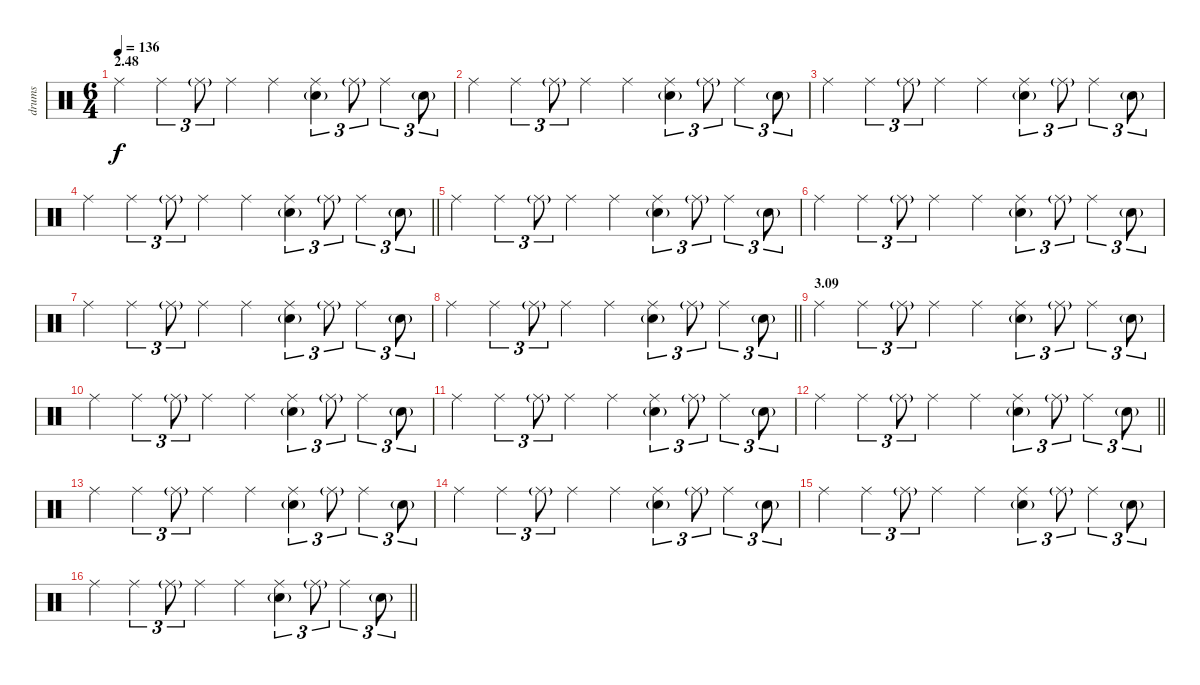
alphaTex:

\track ("drums" "drums") {instrument percussion}
\staff {score}
\articulation defaults
\ts (6 4)
\section ("" "2.48")
\tempo 136
\clef neutral
\ks c "Ride (middle)".4{dy f} "Ride (middle)".4{tu (3 2)} "Ride (middle)"{g}.8{tu (3 2)} "Ride (middle)".4 "Ride (middle)".4
("Ride (middle)" "Electric Snare (hit)"{g}).4{tu (3 2)} "Ride (middle)"{g}.8{tu (3 2)} "Ride (middle)".4{tu (3 2)} "Electric Snare (hit)"{g}.8{tu (3 2)} |
"Ride (middle)".4 "Ride (middle)".4{tu (3 2)} "Ride (middle)"{g}.8{tu (3 2)} "Ride (middle)".4 "Ride (middle)".4 ("Ride (middle)" "Electric Snare (hit)"{g}).4{tu (3 2)} "Ride (middle)"{g}.8{tu (3 2)} "Ride (middle)".4{tu (3 2)} "Electric Snare (hit)"{g}.8{tu (3 2)} |
"Ride (middle)".4 "Ride (middle)".4{tu (3 2)} "Ride (middle)"{g}.8{tu (3 2)} "Ride (middle)".4 "Ride (middle)".4 ("Ride (middle)" "Electric Snare (hit)"{g}).4{tu (3 2)} "Ride (middle)"{g}.8{tu (3 2)} "Ride (middle)".4{tu (3 2)} "Electric Snare (hit)"{g}.8{tu (3 2)} |
\barLineRight lightlight "Ride (middle)".4 "Ride (middle)".4{tu (3 2)} "Ride (middle)"{g}.8{tu (3 2)} "Ride (middle)".4 "Ride (middle)".4
("Ride (middle)" "Electric Snare (hit)"{g}).4{tu (3 2)} "Ride (middle)"{g}.8{tu (3 2)} "Ride (middle)".4{tu (3 2)} "Electric Snare (hit)"{g}.8{tu (3 2)} |
"Ride (middle)".4 "Ride (middle)".4{tu (3 2)} "Ride (middle)"{g}.8{tu (3 2)} "Ride (middle)".4 "Ride (middle)".4 ("Ride (middle)" "Electric Snare (hit)"{g}).4{tu (3 2)} "Ride (middle)"{g}.8{tu (3 2)} "Ride (middle)".4{tu (3 2)} "Electric Snare (hit)"{g}.8{tu (3 2)} |
"Ride (middle)".4 "Ride (middle)".4{tu (3 2)} "Ride (middle)"{g}.8{tu (3 2)} "Ride (middle)".4 "Ride (middle)".4 ("Ride (middle)" "Electric Snare (hit)"{g}).4{tu (3 2)} "Ride (middle)"{g}.8{tu (3 2)} "Ride (middle)".4{tu (3 2)} "Electric Snare (hit)"{g}.8{tu (3 2)} |
"Ride (middle)".4 "Ride (middle)".4{tu (3 2)} "Ride (middle)"{g}.8{tu (3 2)} "Ride (middle)".4 "Ride (middle)".4 ("Ride (middle)" "Electric Snare (hit)"{g}).4{tu (3 2)} "Ride (middle)"{g}.8{tu (3 2)} "Ride (middle)".4{tu (3 2)} "Electric Snare (hit)"{g}.8{tu (3 2)} |
\barLineRight lightlight "Ride (middle)".4 "Ride (middle)".4{tu (3 2)} "Ride (middle)"{g}.8{tu (3 2)} "Ride (middle)".4 "Ride (middle)".4
("Ride (middle)" "Electric Snare (hit)"{g}).4{tu (3 2)} "Ride (middle)"{g}.8{tu (3 2)} "Ride (middle)".4{tu (3 2)} "Electric Snare (hit)"{g}.8{tu (3 2)} |
\section ("" "3.09")
"Ride (middle)".4 "Ride (middle)".4{tu (3 2)} "Ride (middle)"{g}.8{tu (3 2)} "Ride (middle)".4 "Ride (middle)".4 ("Ride (middle)" "Electric Snare (hit)"{g}).4{tu (3 2)} "Ride (middle)"{g}.8{tu (3 2)} "Ride (middle)".4{tu (3 2)} "Electric Snare (hit)"{g}.8{tu (3 2)} |
"Ride (middle)".4 "Ride (middle)".4{tu (3 2)} "Ride (middle)"{g}.8{tu (3 2)} "Ride (middle)".4 "Ride (middle)".4 ("Ride (middle)" "Electric Snare (hit)"{g}).4{tu (3 2)} "Ride (middle)"{g}.8{tu (3 2)} "Ride (middle)".4{tu (3 2)} "Electric Snare (hit)"{g}.8{tu (3 2)} |
"Ride (middle)".4 "Ride (middle)".4{tu (3 2)} "Ride (middle)"{g}.8{tu (3 2)} "Ride (middle)".4 "Ride (middle)".4 ("Ride (middle)" "Electric Snare (hit)"{g}).4{tu (3 2)} "Ride (middle)"{g}.8{tu (3 2)} "Ride (middle)".4{tu (3 2)} "Electric Snare (hit)"{g}.8{tu (3 2)} |
\barLineRight lightlight "Ride (middle)".4 "Ride (middle)".4{tu (3 2)} "Ride (middle)"{g}.8{tu (3 2)} "Ride (middle)".4 "Ride (middle)".4
("Ride (middle)" "Electric Snare (hit)"{g}).4{tu (3 2)} "Ride (middle)"{g}.8{tu (3 2)} "Ride (middle)".4{tu (3 2)} "Electric Snare (hit)"{g}.8{tu (3 2)} |
"Ride (middle)".4 "Ride (middle)".4{tu (3 2)} "Ride (middle)"{g}.8{tu (3 2)} "Ride (middle)".4 "Ride (middle)".4 ("Ride (middle)" "Electric Snare (hit)"{g}).4{tu (3 2)} "Ride (middle)"{g}.8{tu (3 2)} "Ride (middle)".4{tu (3 2)} "Electric Snare (hit)"{g}.8{tu (3 2)} |
"Ride (middle)".4 "Ride (middle)".4{tu (3 2)} "Ride (middle)"{g}.8{tu (3 2)} "Ride (middle)".4 "Ride (middle)".4 ("Ride (middle)" "Electric Snare (hit)"{g}).4{tu (3 2)} "Ride (middle)"{g}.8{tu (3 2)} "Ride (middle)".4{tu (3 2)} "Electric Snare (hit)"{g}.8{tu (3 2)} |
"Ride (middle)".4 "Ride (middle)".4{tu (3 2)} "Ride (middle)"{g}.8{tu (3 2)} "Ride (middle)".4 "Ride (middle)".4 ("Ride (middle)" "Electric Snare (hit)"{g}).4{tu (3 2)} "Ride (middle)"{g}.8{tu (3 2)} "Ride (middle)".4{tu (3 2)} "Electric Snare (hit)"{g}.8{tu (3 2)} |
\barLineRight lightlight "Ride (middle)".4 "Ride (middle)".4{tu (3 2)} "Ride (middle)"{g}.8{tu (3 2)} "Ride (middle)".4 "Ride (middle)".4
("Ride (middle)" "Electric Snare (hit)"{g}).4{tu (3 2)} "Ride (middle)"{g}.8{tu (3 2)} "Ride (middle)".4{tu (3 2)} "Electric Snare (hit)"{g}.8{tu (3 2)}
